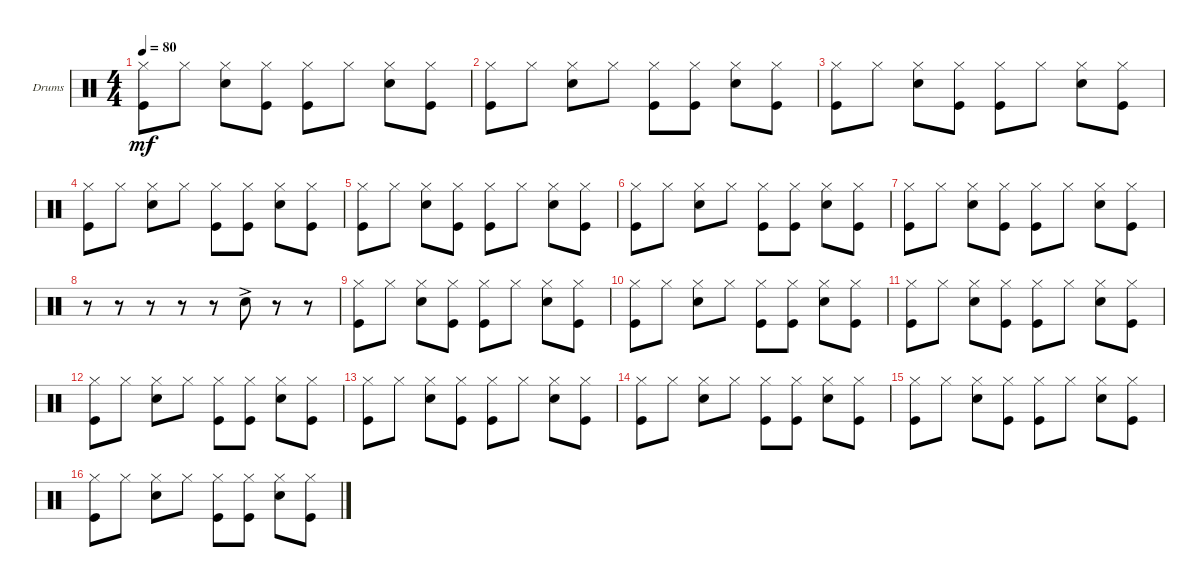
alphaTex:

\defaultSystemsLayout 4
\bracketExtendMode groupsimilarinstruments
\firstSystemTrackNameOrientation horizontal
\otherSystemsTrackNameOrientation horizontal
\track ("Drumkit" "Drums") {instrument percussion}
\staff {score}
\articulation defaults
\ts (4 4)
\tempo 80
\clef neutral
\ks c
("Hi-Hat (closed)" "Kick (hit)").8{dy mf} "Hi-Hat (closed)".8 ("Hi-Hat (closed)" "Snare (hit) 2").8 ("Hi-Hat (closed)" "Kick (hit)").8 ("Hi-Hat (closed)" "Kick (hit)").8 "Hi-Hat (closed)".8 ("Hi-Hat (closed)" "Snare (hit) 2").8 ("Hi-Hat (closed)" "Kick (hit)").8 |
("Hi-Hat (closed)" "Kick (hit)").8 "Hi-Hat (closed)".8 ("Hi-Hat (closed)" "Snare (hit) 2").8 "Hi-Hat (closed)".8 ("Hi-Hat (closed)" "Kick (hit)").8 ("Hi-Hat (closed)" "Kick (hit)").8 ("Hi-Hat (closed)" "Snare (hit) 2").8 ("Hi-Hat (closed)" "Kick (hit)").8 |
("Hi-Hat (closed)" "Kick (hit)").8 "Hi-Hat (closed)".8 ("Hi-Hat (closed)" "Snare (hit) 2").8 ("Hi-Hat (closed)" "Kick (hit)").8 ("Hi-Hat (closed)" "Kick (hit)").8 "Hi-Hat (closed)".8 ("Hi-Hat (closed)" "Snare (hit) 2").8 ("Hi-Hat (closed)" "Kick (hit)").8 |
("Hi-Hat (closed)" "Kick (hit)").8 "Hi-Hat (closed)".8 ("Hi-Hat (closed)" "Snare (hit) 2").8 "Hi-Hat (closed)".8 ("Hi-Hat (closed)" "Kick (hit)").8 ("Hi-Hat (closed)" "Kick (hit)").8 ("Hi-Hat (closed)" "Snare (hit) 2").8 ("Hi-Hat (closed)" "Kick (hit)").8 |
("Hi-Hat (closed)" "Kick (hit)").8 "Hi-Hat (closed)".8 ("Hi-Hat (closed)" "Snare (hit) 2").8 ("Hi-Hat (closed)" "Kick (hit)").8 ("Hi-Hat (closed)" "Kick (hit)").8 "Hi-Hat (closed)".8 ("Hi-Hat (closed)" "Snare (hit) 2").8 ("Hi-Hat (closed)" "Kick (hit)").8 |
("Hi-Hat (closed)" "Kick (hit)").8 "Hi-Hat (closed)".8 ("Hi-Hat (closed)" "Snare (hit) 2").8 "Hi-Hat (closed)".8 ("Hi-Hat (closed)" "Kick (hit)").8 ("Hi-Hat (closed)" "Kick (hit)").8 ("Hi-Hat (closed)" "Snare (hit) 2").8 ("Hi-Hat (closed)" "Kick (hit)").8 |
("Hi-Hat (closed)" "Kick (hit)").8 "Hi-Hat (closed)".8 ("Hi-Hat (closed)" "Snare (hit) 2").8 ("Hi-Hat (closed)" "Kick (hit)").8 ("Hi-Hat (closed)" "Kick (hit)").8 "Hi-Hat (closed)".8 ("Hi-Hat (closed)" "Snare (hit) 2").8 ("Hi-Hat (closed)" "Kick (hit)").8 |
r.8 r.8 r.8 r.8 r.8 "Snare (hit) 2"{ac}.8 r.8 r.8 |
("Hi-Hat (closed)" "Kick (hit)").8 "Hi-Hat (closed)".8 ("Hi-Hat (closed)" "Snare (hit) 2").8 ("Hi-Hat (closed)" "Kick (hit)").8 ("Hi-Hat (closed)" "Kick (hit)").8 "Hi-Hat (closed)".8 ("Hi-Hat (closed)" "Snare (hit) 2").8 ("Hi-Hat (closed)" "Kick (hit)").8 |
("Hi-Hat (closed)" "Kick (hit)").8 "Hi-Hat (closed)".8 ("Hi-Hat (closed)" "Snare (hit) 2").8 "Hi-Hat (closed)".8 ("Hi-Hat (closed)" "Kick (hit)").8 ("Hi-Hat (closed)" "Kick (hit)").8 ("Hi-Hat (closed)" "Snare (hit) 2").8 ("Hi-Hat (closed)" "Kick (hit)").8 |
("Hi-Hat (closed)" "Kick (hit)").8 "Hi-Hat (closed)".8 ("Hi-Hat (closed)" "Snare (hit) 2").8 ("Hi-Hat (closed)" "Kick (hit)").8 ("Hi-Hat (closed)" "Kick (hit)").8 "Hi-Hat (closed)".8 ("Hi-Hat (closed)" "Snare (hit) 2").8 ("Hi-Hat (closed)" "Kick (hit)").8 |
("Hi-Hat (closed)" "Kick (hit)").8 "Hi-Hat (closed)".8 ("Hi-Hat (closed)" "Snare (hit) 2").8 "Hi-Hat (closed)".8 ("Hi-Hat (closed)" "Kick (hit)").8 ("Hi-Hat (closed)" "Kick (hit)").8 ("Hi-Hat (closed)" "Snare (hit) 2").8 ("Hi-Hat (closed)" "Kick (hit)").8 |
("Hi-Hat (closed)" "Kick (hit)").8 "Hi-Hat (closed)".8 ("Hi-Hat (closed)" "Snare (hit) 2").8 ("Hi-Hat (closed)" "Kick (hit)").8 ("Hi-Hat (closed)" "Kick (hit)").8 "Hi-Hat (closed)".8 ("Hi-Hat (closed)" "Snare (hit) 2").8 ("Hi-Hat (closed)" "Kick (hit)").8 |
("Hi-Hat (closed)" "Kick (hit)").8 "Hi-Hat (closed)".8 ("Hi-Hat (closed)" "Snare (hit) 2").8 "Hi-Hat (closed)".8 ("Hi-Hat (closed)" "Kick (hit)").8 ("Hi-Hat (closed)" "Kick (hit)").8 ("Hi-Hat (closed)" "Snare (hit) 2").8 ("Hi-Hat (closed)" "Kick (hit)").8 |
("Hi-Hat (closed)" "Kick (hit)").8 "Hi-Hat (closed)".8 ("Hi-Hat (closed)" "Snare (hit) 2").8 ("Hi-Hat (closed)" "Kick (hit)").8 ("Hi-Hat (closed)" "Kick (hit)").8 "Hi-Hat (closed)".8 ("Hi-Hat (closed)" "Snare (hit) 2").8 ("Hi-Hat (closed)" "Kick (hit)").8 |
("Hi-Hat (closed)" "Kick (hit)").8 "Hi-Hat (closed)".8 ("Hi-Hat (closed)" "Snare (hit) 2").8 "Hi-Hat (closed)".8 ("Hi-Hat (closed)" "Kick (hit)").8 ("Hi-Hat (closed)" "Kick (hit)").8 ("Hi-Hat (closed)" "Snare (hit) 2").8 ("Hi-Hat (closed)" "Kick (hit)").8
